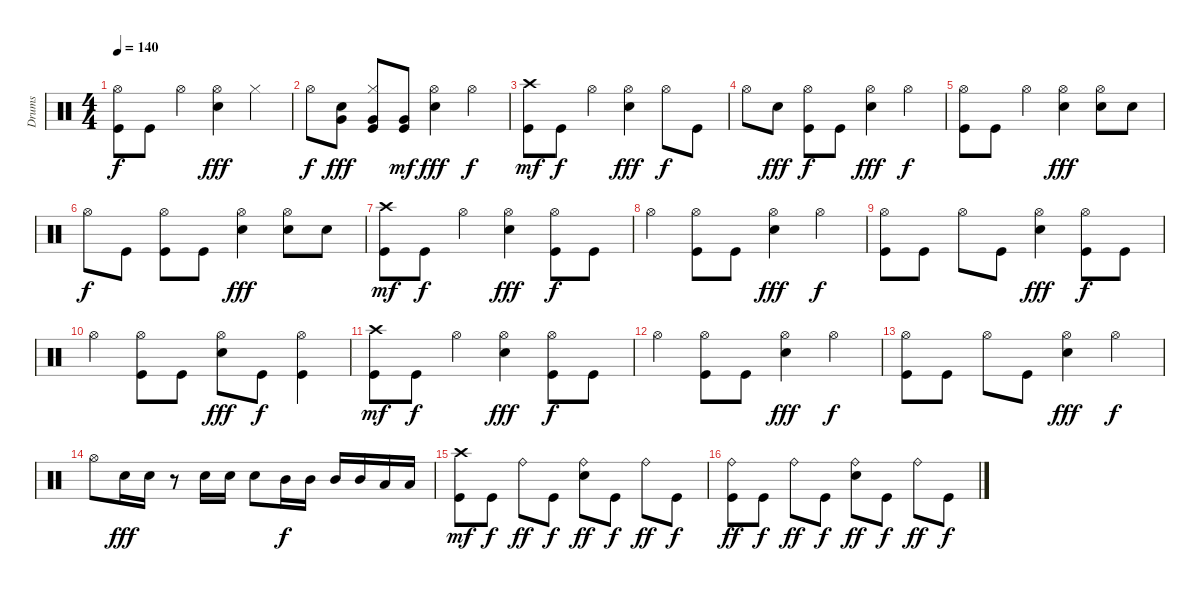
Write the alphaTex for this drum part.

\track ("Drums" "Drums") {instrument percussion}
\staff {score}
\articulation defaults
\ts (4 4)
\tempo 140
\clef neutral
\ks c
("Kick (hit)" "Hi-Hat (open)").8{dy f} "Kick (hit)".8 "Hi-Hat (open)".4 ("Electric Snare (hit)" "Hi-Hat (open)").4{dy fff} "Hi-Hat (closed)".4 |
"Hi-Hat (open)".8{dy f} ("Very Low Tom (hit)" "Electric Snare (hit)").8{dy fff} ("Very Low Tom (hit)" "Kick (hit)" "Hi-Hat (closed)").8 ("Very Low Tom (hit)" "Kick (hit)").8{dy mf} ("Electric Snare (hit)" "Hi-Hat (open)").4{dy fff} "Hi-Hat (open)".4{dy f} |
("Kick (hit)" "Crash high (hit)").8{dy mf} "Kick (hit)".8{dy f} "Hi-Hat (open)".4 ("Electric Snare (hit)" "Hi-Hat (open)").4{dy fff} "Hi-Hat (open)".8{dy f} "Kick (hit)".8 |
"Hi-Hat (open)".8 "Electric Snare (hit)".8{dy fff} ("Kick (hit)" "Hi-Hat (open)").8{dy f} "Kick (hit)".8 ("Electric Snare (hit)" "Hi-Hat (open)").4{dy fff} "Hi-Hat (open)".4{dy f} |
("Kick (hit)" "Hi-Hat (open)").8 "Kick (hit)".8 "Hi-Hat (open)".4 ("Electric Snare (hit)" "Hi-Hat (open)").4{dy fff} ("Electric Snare (hit)" "Hi-Hat (open)").8 "Electric Snare (hit)".8 |
"Hi-Hat (open)".8{dy f} "Kick (hit)".8 ("Kick (hit)" "Hi-Hat (open)").8 "Kick (hit)".8 ("Electric Snare (hit)" "Hi-Hat (open)").4{dy fff} ("Electric Snare (hit)" "Hi-Hat (open)").8 "Electric Snare (hit)".8 |
("Kick (hit)" "Crash high (hit)").8{dy mf} "Kick (hit)".8{dy f} "Hi-Hat (open)".4 ("Electric Snare (hit)" "Hi-Hat (open)").4{dy fff} ("Kick (hit)" "Hi-Hat (open)").8{dy f} "Kick (hit)".8 |
"Hi-Hat (open)".4 ("Kick (hit)" "Hi-Hat (open)").8 "Kick (hit)".8 ("Electric Snare (hit)" "Hi-Hat (open)").4{dy fff} "Hi-Hat (open)".4{dy f} |
("Kick (hit)" "Hi-Hat (open)").8 "Kick (hit)".8 "Hi-Hat (open)".8 "Kick (hit)".8 ("Electric Snare (hit)" "Hi-Hat (open)").4{dy fff} ("Kick (hit)" "Hi-Hat (open)").8{dy f} "Kick (hit)".8 |
"Hi-Hat (open)".4 ("Kick (hit)" "Hi-Hat (open)").8 "Kick (hit)".8 ("Electric Snare (hit)" "Hi-Hat (open)").8{dy fff} "Kick (hit)".8{dy f} ("Kick (hit)" "Hi-Hat (open)").4 |
("Kick (hit)" "Crash high (hit)").8{dy mf} "Kick (hit)".8{dy f} "Hi-Hat (open)".4 ("Electric Snare (hit)" "Hi-Hat (open)").4{dy fff} ("Kick (hit)" "Hi-Hat (open)").8{dy f} "Kick (hit)".8 |
"Hi-Hat (open)".4 ("Kick (hit)" "Hi-Hat (open)").8 "Kick (hit)".8 ("Electric Snare (hit)" "Hi-Hat (open)").4{dy fff} "Hi-Hat (open)".4{dy f} |
("Kick (hit)" "Hi-Hat (open)").8 "Kick (hit)".8 "Hi-Hat (open)".8 "Kick (hit)".8 ("Electric Snare (hit)" "Hi-Hat (open)").4{dy fff} "Hi-Hat (open)".4{dy f} |
"Hi-Hat (open)".8 "Electric Snare (hit)".16{dy fff} "Electric Snare (hit)".16 r.8 "Electric Snare (hit)".16 "Electric Snare (hit)".16 "Electric Snare (hit)".8 "Mid Tom (hit)".16{dy f} "Mid Tom (hit)".16 "Mid Tom (hit)".16 "Mid Tom (hit)".16 "Low Tom (hit)".16 "Low Tom (hit)".16 |
("Kick (hit)" "Crash high (hit)").8{dy mf} "Kick (hit)".8{dy f} "Ride (bell)".8{dy ff} "Kick (hit)".8{dy f} ("Electric Snare (hit)" "Ride (bell)").8{dy ff} "Kick (hit)".8{dy f} "Ride (bell)".8{dy ff} "Kick (hit)".8{dy f} |
("Kick (hit)" "Ride (bell)").8{dy ff} "Kick (hit)".8{dy f} "Ride (bell)".8{dy ff} "Kick (hit)".8{dy f} ("Electric Snare (hit)" "Ride (bell)").8{dy ff} "Kick (hit)".8{dy f} "Ride (bell)".8{dy ff} "Kick (hit)".8{dy f}
